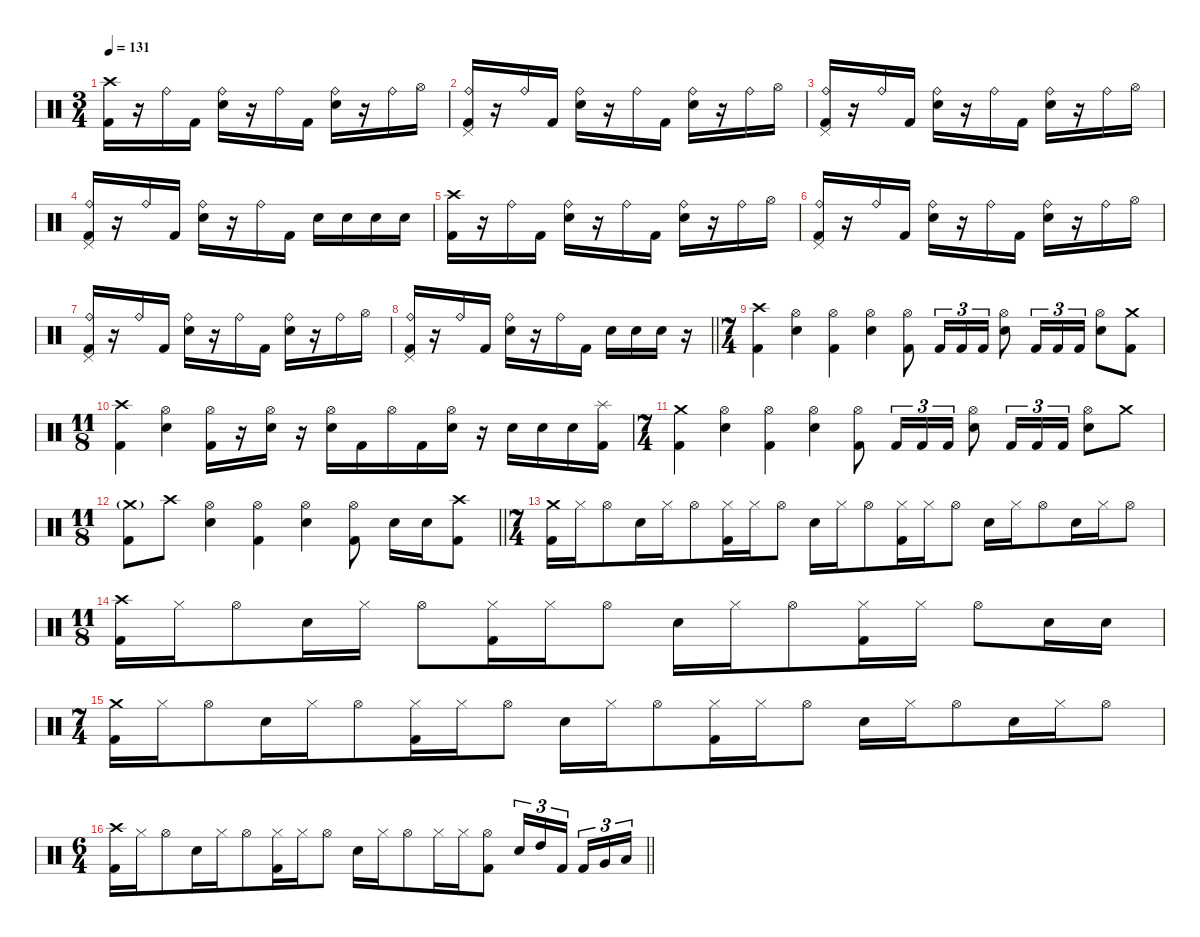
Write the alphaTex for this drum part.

\defaultSystemsLayout 4
\hideDynamics
\bracketExtendMode nobrackets
\singleTrackTrackNamePolicy hidden
\multiTrackTrackNamePolicy hidden
\otherSystemsTrackNameOrientation horizontal
\track ("Drums" "drm.") {defaultSystemsLayout 4 instrument percussion}
\staff {score}
\articulation defaults
\ts (3 4)
\tempo 131
\clef neutral
\ks c
("Kick (hit) 2" "Crash high (hit)").16{dy fff beam Down} r.16{beam Down} "Ride (bell)".16{dy mp beam Down} "Kick (hit) 2".16{dy fff beam Down} ("Snare (hit) 2" "Ride (bell)").16{beam Down} r.16{beam Down} "Ride (bell)".16{dy mp beam Down} "Kick (hit) 2".16{dy fff beam Down} ("Snare (hit) 2" "Ride (bell)").16{beam Down} r.16{beam Down} "Ride (bell)".16{dy mp beam Down} "Hi-Hat (open)".16{beam Down} |
("Kick (hit) 2" "Ride (bell)" "Pedal Hi-Hat (hit)").16{dy fff beam Up} r.16{beam Up} "Ride (bell)".16{dy mp beam Up} "Kick (hit) 2".16{dy fff beam Up} ("Snare (hit) 2" "Ride (bell)").16{beam Down} r.16{beam Down} "Ride (bell)".16{dy mp beam Down} "Kick (hit) 2".16{dy fff beam Down} ("Snare (hit) 2" "Ride (bell)").16{beam Down} r.16{beam Down} "Ride (bell)".16{dy mp beam Down} "Hi-Hat (open)".16{beam Down} |
("Kick (hit) 2" "Ride (bell)" "Pedal Hi-Hat (hit)").16{dy fff beam Up} r.16{beam Up} "Ride (bell)".16{dy mp beam Up} "Kick (hit) 2".16{dy fff beam Up} ("Snare (hit) 2" "Ride (bell)").16{beam Down} r.16{beam Down} "Ride (bell)".16{dy mp beam Down} "Kick (hit) 2".16{dy fff beam Down} ("Snare (hit) 2" "Ride (bell)").16{beam Down} r.16{beam Down} "Ride (bell)".16{dy mp beam Down} "Hi-Hat (open)".16{beam Down} |
("Kick (hit) 2" "Ride (bell)" "Pedal Hi-Hat (hit)").16{dy fff beam Up} r.16{beam Up} "Ride (bell)".16{dy mp beam Up} "Kick (hit) 2".16{dy fff beam Up} ("Snare (hit) 2" "Ride (bell)").16{beam Down} r.16{beam Down} "Ride (bell)".16{dy mp beam Down} "Kick (hit) 2".16{dy fff beam Down} "Snare (hit) 2".16{beam Down} "Snare (hit) 2".16{beam Down} "Snare (hit) 2".16{beam Down} "Snare (hit) 2".16{beam Down} |
("Kick (hit) 2" "Crash high (hit)").16{beam Down} r.16{beam Down} "Ride (bell)".16{dy mp beam Down} "Kick (hit) 2".16{dy fff beam Down} ("Snare (hit) 2" "Ride (bell)").16{beam Down} r.16{beam Down} "Ride (bell)".16{dy mp beam Down} "Kick (hit) 2".16{dy fff beam Down} ("Snare (hit) 2" "Ride (bell)").16{beam Down} r.16{beam Down} "Ride (bell)".16{dy mp beam Down} "Hi-Hat (open)".16{beam Down} |
("Kick (hit) 2" "Ride (bell)" "Pedal Hi-Hat (hit)").16{dy fff beam Up} r.16{beam Up} "Ride (bell)".16{dy mp beam Up} "Kick (hit) 2".16{dy fff beam Up} ("Snare (hit) 2" "Ride (bell)").16{beam Down} r.16{beam Down} "Ride (bell)".16{dy mp beam Down} "Kick (hit) 2".16{dy fff beam Down} ("Snare (hit) 2" "Ride (bell)").16{beam Down} r.16{beam Down} "Ride (bell)".16{dy mp beam Down} "Hi-Hat (open)".16{beam Down} |
("Kick (hit) 2" "Ride (bell)" "Pedal Hi-Hat (hit)").16{dy fff beam Up} r.16{beam Up} "Ride (bell)".16{dy mp beam Up} "Kick (hit) 2".16{dy fff beam Up} ("Snare (hit) 2" "Ride (bell)").16{beam Down} r.16{beam Down} "Ride (bell)".16{dy mp beam Down} "Kick (hit) 2".16{dy fff beam Down} ("Snare (hit) 2" "Ride (bell)").16{beam Down} r.16{beam Down} "Ride (bell)".16{dy mp beam Down} "Hi-Hat (open)".16{beam Down} |
\barLineRight lightlight
("Kick (hit) 2" "Ride (bell)" "Pedal Hi-Hat (hit)").16{dy fff beam Up} r.16{beam Up} "Ride (bell)".16{dy mp beam Up} "Kick (hit) 2".16{dy fff beam Up} ("Snare (hit) 2" "Ride (bell)").16{beam Down} r.16{beam Down} "Ride (bell)".16{dy mp beam Down} "Kick (hit) 2".16{dy fff beam Down} "Snare (hit) 2".16{beam Down} "Snare (hit) 2".16{beam Down} "Snare (hit) 2".16{beam Down} r.16{beam Down} |
\ts (7 4)
\beaming (8 6 4 4)
("Kick (hit) 2" "Crash high (hit)").4{beam Down} ("Snare (hit) 2" "Hi-Hat (open)").4{beam Down} ("Kick (hit) 2" "Hi-Hat (open)").4{beam Down} ("Snare (hit) 2" "Hi-Hat (open)").4{beam Down} ("Kick (hit) 2" "Hi-Hat (open)").8{beam Down} "Kick (hit) 2".16{tu (3 2) beam Up} "Kick (hit) 2".16{tu (3 2) beam Up} "Kick (hit) 2".16{tu (3 2) beam Up} ("Snare (hit) 2" "Hi-Hat (open)").8{beam Down} "Kick (hit) 2".16{tu (3 2) beam Up} "Kick (hit) 2".16{tu (3 2) beam Up} "Kick (hit) 2".16{tu (3 2) beam Up} ("Snare (hit) 2" "Hi-Hat (open)").8{beam Down} ("Kick (hit) 2" "Crash medium (hit)").8{beam Down} |
\ts (11 8)
\beaming (8 3 3 3 2)
("Kick (hit) 2" "Crash high (hit)").4{beam Down} ("Snare (hit) 2" "Hi-Hat (open)").4{beam Down} ("Kick (hit) 2" "Hi-Hat (open)").16{beam Down} r.16{beam Down} ("Snare (hit) 2" "Hi-Hat (open)").16{beam Down} r.16{beam Down} ("Snare (hit) 2" "Hi-Hat (open)").16{beam Down} "Kick (hit) 2".16{beam Down} "Hi-Hat (open)".16{dy p beam Down} "Kick (hit) 2".16{dy fff beam Down} ("Snare (hit) 2" "Hi-Hat (open)").16{beam Down} r.16{beam Down} "Snare (hit) 2".16{beam Down} "Snare (hit) 2".16{beam Down} "Snare (hit) 2".16{beam Down} ("Kick (hit) 2" "Splash (hit)").16{beam Down} |
\ts (7 4)
\beaming (8 3 3 3 5)
("Kick (hit) 2" "Crash medium (hit)").4{beam Down} ("Snare (hit) 2" "Hi-Hat (open)").4{beam Down} ("Kick (hit) 2" "Hi-Hat (open)").4{beam Down} ("Snare (hit) 2" "Hi-Hat (open)").4{beam Down} ("Kick (hit) 2" "Hi-Hat (open)").8{beam Down} "Kick (hit) 2".16{tu (3 2) beam Up} "Kick (hit) 2".16{tu (3 2) beam Up} "Kick (hit) 2".16{tu (3 2) beam Up} ("Snare (hit) 2" "Hi-Hat (open)").8{beam Down} "Kick (hit) 2".16{tu (3 2) beam Up} "Kick (hit) 2".16{tu (3 2) beam Up} "Kick (hit) 2".16{tu (3 2) beam Up} ("Snare (hit) 2" "Hi-Hat (open)").8{beam Down} "Crash medium (hit)".8{dy f beam Down} |
\ts (11 8)
\beaming (8 3 3 3 2)
\barLineRight lightlight
("Kick (hit) 2" "Crash medium (hit)"{g}).8{dy fff beam Down} "Crash high (hit)".8{dy f beam Down} ("Snare (hit) 2" "Hi-Hat (open)").4{dy fff beam Down} ("Kick (hit) 2" "Hi-Hat (open)").4{beam Down} ("Snare (hit) 2" "Hi-Hat (open)").4{beam Down} ("Kick (hit) 2" "Hi-Hat (open)").8{beam Down} "Snare (hit) 2".16{beam Down} "Snare (hit) 2".16{beam Down} ("Kick (hit) 2" "Crash high (hit)").8{beam Down} |
\ts (7 4)
\beaming (8 6 4 4)
("Kick (hit) 2" "Crash medium (hit)").16{beam Down} "Hi-Hat (closed)".16{dy mp beam Down} "Hi-Hat (open)".8{beam Down} "Snare (hit) 2".16{dy fff beam Down} "Hi-Hat (closed)".16{dy mp beam Down} "Hi-Hat (open)".8{beam Down} ("Kick (hit) 2" "Hi-Hat (closed)").16{dy fff beam Down} "Hi-Hat (closed)".16{dy mp beam Down} "Hi-Hat (open)".8{beam Down} "Snare (hit) 2".16{dy fff beam Down} "Hi-Hat (closed)".16{dy mp beam Down} "Hi-Hat (open)".8{beam Down} ("Kick (hit) 2" "Hi-Hat (closed)").16{dy fff beam Down} "Hi-Hat (closed)".16{dy mp beam Down} "Hi-Hat (open)".8{beam Down} "Snare (hit) 2".16{dy fff beam Down} "Hi-Hat (closed)".16{dy mp beam Down} "Hi-Hat (open)".8{beam Down} "Snare (hit) 2".16{dy fff beam Down} "Hi-Hat (closed)".16{dy mp beam Down} "Hi-Hat (open)".8{beam Down} |
\ts (11 8)
\beaming (8 3 3 3 2)
("Kick (hit) 2" "Crash high (hit)").16{dy fff beam Down} "Hi-Hat (closed)".16{dy mp beam Down} "Hi-Hat (open)".8{beam Down} "Snare (hit) 2".16{dy fff beam Down} "Hi-Hat (closed)".16{dy mp beam Down} "Hi-Hat (open)".8{beam Down} ("Kick (hit) 2" "Hi-Hat (closed)").16{dy fff beam Down} "Hi-Hat (closed)".16{dy mp beam Down} "Hi-Hat (open)".8{beam Down} "Snare (hit) 2".16{dy fff beam Down} "Hi-Hat (closed)".16{dy mp beam Down} "Hi-Hat (open)".8{beam Down} ("Kick (hit) 2" "Hi-Hat (closed)").16{dy fff beam Down} "Hi-Hat (closed)".16{dy mp beam Down} "Hi-Hat (open)".8{beam Down} "Snare (hit) 2".16{dy fff beam Down} "Snare (hit) 2".16{beam Down} |
\ts (7 4)
\beaming (8 6 4 4)
("Kick (hit) 2" "Crash medium (hit)").16{beam Down} "Hi-Hat (closed)".16{dy mp beam Down} "Hi-Hat (open)".8{beam Down} "Snare (hit) 2".16{dy fff beam Down} "Hi-Hat (closed)".16{dy mp beam Down} "Hi-Hat (open)".8{beam Down} ("Kick (hit) 2" "Hi-Hat (closed)").16{dy fff beam Down} "Hi-Hat (closed)".16{dy mp beam Down} "Hi-Hat (open)".8{beam Down} "Snare (hit) 2".16{dy fff beam Down} "Hi-Hat (closed)".16{dy mp beam Down} "Hi-Hat (open)".8{beam Down} ("Kick (hit) 2" "Hi-Hat (closed)").16{dy fff beam Down} "Hi-Hat (closed)".16{dy mp beam Down} "Hi-Hat (open)".8{beam Down} "Snare (hit) 2".16{dy fff beam Down} "Hi-Hat (closed)".16{dy mp beam Down} "Hi-Hat (open)".8{beam Down} "Snare (hit) 2".16{dy fff beam Down} "Hi-Hat (closed)".16{dy mp beam Down} "Hi-Hat (open)".8{beam Down} |
\ts (6 4)
\beaming (8 6 6)
\barLineRight lightlight
("Kick (hit) 2" "Crash high (hit)").16{dy fff beam Down} "Hi-Hat (closed)".16{dy mp beam Down} "Hi-Hat (open)".8{beam Down} "Snare (hit) 2".16{dy fff beam Down} "Hi-Hat (closed)".16{dy mp beam Down} "Hi-Hat (open)".8{beam Down} ("Kick (hit) 2" "Hi-Hat (closed)").16{dy fff beam Down} "Hi-Hat (closed)".16{dy mp beam Down} "Hi-Hat (open)".8{beam Down} "Snare (hit) 2".16{dy fff beam Down} "Hi-Hat (closed)".16{dy mp beam Down} "Hi-Hat (open)".8{beam Down} "Hi-Hat (closed)".16{beam Down} "Hi-Hat (closed)".16{beam Down} ("Kick (hit) 2" "Hi-Hat (open)").8{dy fff beam Down} "Snare (hit) 2".16{tu (3 2) beam Up} "High Tom (hit)".16{tu (3 2) beam Up} "Kick (hit) 2".16{tu (3 2) beam Up} "Kick (hit) 2".16{tu (3 2) beam Up} "Very Low Tom (hit)".16{tu (3 2) beam Up} "Low Floor Tom (hit)".16{tu (3 2) beam Up}
